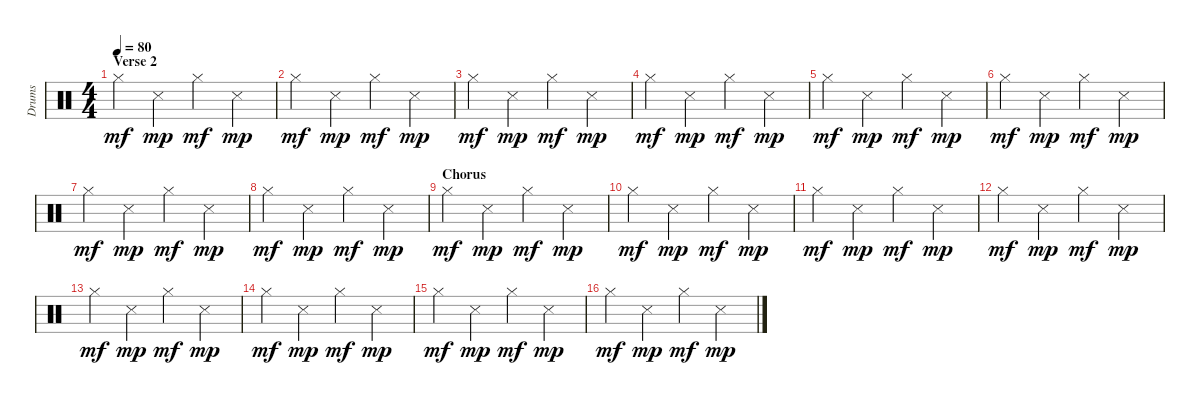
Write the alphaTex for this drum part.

\track ("Drums" "Drums") {instrument percussion}
\staff {score}
\articulation defaults
\ts (4 4)
\section ("" "Verse 2")
\tempo 80
\clef neutral
\ks c "Hi-Hat (closed)".4{dy mf} "Snare (side stick) 3".4{dy mp} "Hi-Hat (closed)".4{dy mf} "Snare (side stick) 3".4{dy mp}
|
"Hi-Hat (closed)".4{dy mf} "Snare (side stick) 3".4{dy mp} "Hi-Hat (closed)".4{dy mf} "Snare (side stick) 3".4{dy mp} |
"Hi-Hat (closed)".4{dy mf} "Snare (side stick) 3".4{dy mp} "Hi-Hat (closed)".4{dy mf} "Snare (side stick) 3".4{dy mp} |
"Hi-Hat (closed)".4{dy mf} "Snare (side stick) 3".4{dy mp} "Hi-Hat (closed)".4{dy mf} "Snare (side stick) 3".4{dy mp} |
"Hi-Hat (closed)".4{dy mf} "Snare (side stick) 3".4{dy mp} "Hi-Hat (closed)".4{dy mf} "Snare (side stick) 3".4{dy mp} |
"Hi-Hat (closed)".4{dy mf} "Snare (side stick) 3".4{dy mp} "Hi-Hat (closed)".4{dy mf} "Snare (side stick) 3".4{dy mp} |
"Hi-Hat (closed)".4{dy mf} "Snare (side stick) 3".4{dy mp} "Hi-Hat (closed)".4{dy mf} "Snare (side stick) 3".4{dy mp} |
"Hi-Hat (closed)".4{dy mf} "Snare (side stick) 3".4{dy mp} "Hi-Hat (closed)".4{dy mf} "Snare (side stick) 3".4{dy mp} |
\section ("" "Chorus")
"Hi-Hat (closed)".4{dy mf} "Snare (side stick) 3".4{dy mp} "Hi-Hat (closed)".4{dy mf} "Snare (side stick) 3".4{dy mp} |
"Hi-Hat (closed)".4{dy mf} "Snare (side stick) 3".4{dy mp} "Hi-Hat (closed)".4{dy mf} "Snare (side stick) 3".4{dy mp} |
"Hi-Hat (closed)".4{dy mf} "Snare (side stick) 3".4{dy mp} "Hi-Hat (closed)".4{dy mf} "Snare (side stick) 3".4{dy mp} |
"Hi-Hat (closed)".4{dy mf} "Snare (side stick) 3".4{dy mp} "Hi-Hat (closed)".4{dy mf} "Snare (side stick) 3".4{dy mp} |
"Hi-Hat (closed)".4{dy mf} "Snare (side stick) 3".4{dy mp} "Hi-Hat (closed)".4{dy mf} "Snare (side stick) 3".4{dy mp} |
"Hi-Hat (closed)".4{dy mf} "Snare (side stick) 3".4{dy mp} "Hi-Hat (closed)".4{dy mf} "Snare (side stick) 3".4{dy mp} |
"Hi-Hat (closed)".4{dy mf} "Snare (side stick) 3".4{dy mp} "Hi-Hat (closed)".4{dy mf} "Snare (side stick) 3".4{dy mp} |
"Hi-Hat (closed)".4{dy mf} "Snare (side stick) 3".4{dy mp} "Hi-Hat (closed)".4{dy mf} "Snare (side stick) 3".4{dy mp}
